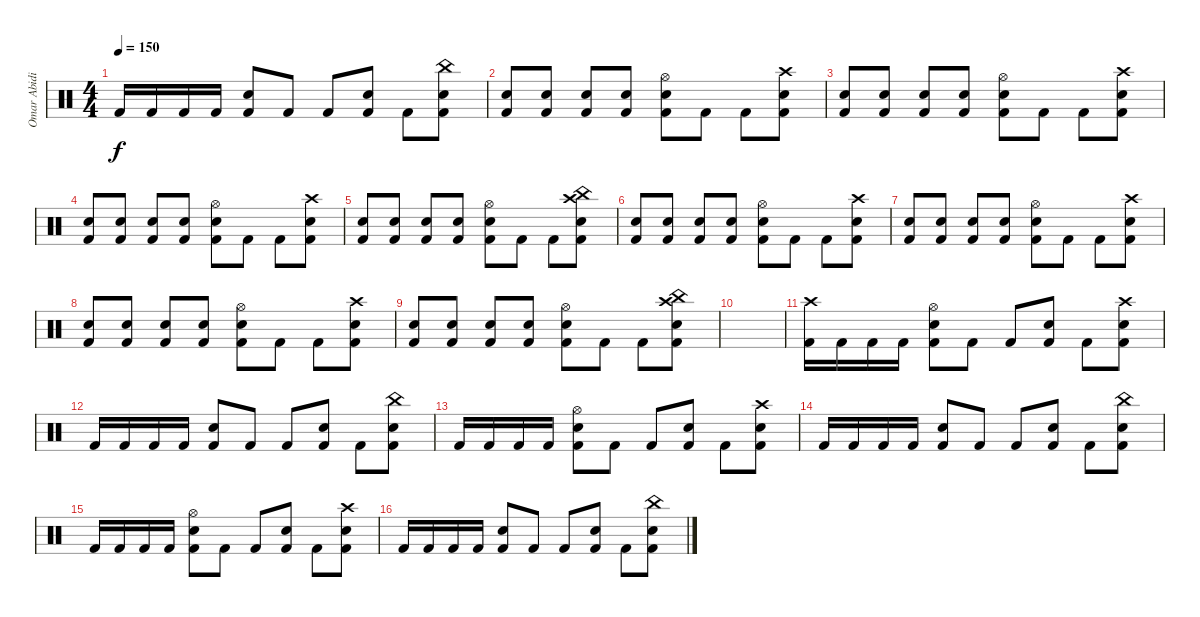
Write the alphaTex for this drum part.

\track ("Omar Abidi" "Omar Abidi") {instrument percussion}
\staff {score}
\articulation defaults
\ts (4 4)
\tempo 150
\clef neutral
\ks c "Kick (hit) 2".16{dy f} "Kick (hit) 2".16 "Kick (hit) 2".16 "Kick (hit) 2".16
("Snare (hit) 2" "Kick (hit) 2").8 "Kick (hit) 2".8 "Kick (hit) 2".8 ("Snare (hit) 2" "Kick (hit) 2").8 "Kick (hit) 2".8 ("China (hit)" "Snare (hit) 2" "Kick (hit) 2").8 |
("Snare (hit) 2" "Kick (hit) 2").8 ("Snare (hit) 2" "Kick (hit) 2").8 ("Snare (hit) 2" "Kick (hit) 2").8 ("Snare (hit) 2" "Kick (hit) 2").8 ("Hi-Hat (open)" "Snare (hit) 2" "Kick (hit) 2").8 "Kick (hit) 2".8 "Kick (hit) 2".8 ("Crash high (hit)" "Snare (hit) 2" "Kick (hit) 2").8 |
("Snare (hit) 2" "Kick (hit) 2").8 ("Snare (hit) 2" "Kick (hit) 2").8 ("Snare (hit) 2" "Kick (hit) 2").8 ("Snare (hit) 2" "Kick (hit) 2").8 ("Hi-Hat (open)" "Snare (hit) 2" "Kick (hit) 2").8 "Kick (hit) 2".8 "Kick (hit) 2".8 ("Crash high (hit)" "Snare (hit) 2" "Kick (hit) 2").8 |
("Snare (hit) 2" "Kick (hit) 2").8 ("Snare (hit) 2" "Kick (hit) 2").8 ("Snare (hit) 2" "Kick (hit) 2").8 ("Snare (hit) 2" "Kick (hit) 2").8 ("Hi-Hat (open)" "Snare (hit) 2" "Kick (hit) 2").8 "Kick (hit) 2".8 "Kick (hit) 2".8 ("Crash high (hit)" "Snare (hit) 2" "Kick (hit) 2").8 |
("Snare (hit) 2" "Kick (hit) 2").8 ("Snare (hit) 2" "Kick (hit) 2").8 ("Snare (hit) 2" "Kick (hit) 2").8 ("Snare (hit) 2" "Kick (hit) 2").8 ("Hi-Hat (open)" "Snare (hit) 2" "Kick (hit) 2").8 "Kick (hit) 2".8 "Kick (hit) 2".8 ("China (hit)" "Crash high (hit)" "Snare (hit) 2" "Kick (hit) 2").8 |
("Snare (hit) 2" "Kick (hit) 2").8 ("Snare (hit) 2" "Kick (hit) 2").8 ("Snare (hit) 2" "Kick (hit) 2").8 ("Snare (hit) 2" "Kick (hit) 2").8 ("Hi-Hat (open)" "Snare (hit) 2" "Kick (hit) 2").8 "Kick (hit) 2".8 "Kick (hit) 2".8 ("Crash high (hit)" "Snare (hit) 2" "Kick (hit) 2").8 |
("Snare (hit) 2" "Kick (hit) 2").8 ("Snare (hit) 2" "Kick (hit) 2").8 ("Snare (hit) 2" "Kick (hit) 2").8 ("Snare (hit) 2" "Kick (hit) 2").8 ("Hi-Hat (open)" "Snare (hit) 2" "Kick (hit) 2").8 "Kick (hit) 2".8 "Kick (hit) 2".8 ("Crash high (hit)" "Snare (hit) 2" "Kick (hit) 2").8 |
("Snare (hit) 2" "Kick (hit) 2").8 ("Snare (hit) 2" "Kick (hit) 2").8 ("Snare (hit) 2" "Kick (hit) 2").8 ("Snare (hit) 2" "Kick (hit) 2").8 ("Hi-Hat (open)" "Snare (hit) 2" "Kick (hit) 2").8 "Kick (hit) 2".8 "Kick (hit) 2".8 ("Crash high (hit)" "Snare (hit) 2" "Kick (hit) 2").8 |
("Snare (hit) 2" "Kick (hit) 2").8 ("Snare (hit) 2" "Kick (hit) 2").8 ("Snare (hit) 2" "Kick (hit) 2").8 ("Snare (hit) 2" "Kick (hit) 2").8 ("Hi-Hat (open)" "Snare (hit) 2" "Kick (hit) 2").8 "Kick (hit) 2".8 "Kick (hit) 2".8 ("China (hit)" "Crash high (hit)" "Snare (hit) 2" "Kick (hit) 2").8 |
|
("Crash high (hit)" "Kick (hit) 2").16 "Kick (hit) 2".16 "Kick (hit) 2".16 "Kick (hit) 2".16 ("Hi-Hat (open)" "Snare (hit) 2" "Kick (hit) 2").8 "Kick (hit) 2".8 "Kick (hit) 2".8 ("Snare (hit) 2" "Kick (hit) 2").8 "Kick (hit) 2".8 ("Crash high (hit)" "Snare (hit) 2" "Kick (hit) 2").8 |
"Kick (hit) 2".16 "Kick (hit) 2".16 "Kick (hit) 2".16 "Kick (hit) 2".16 ("Snare (hit) 2" "Kick (hit) 2").8 "Kick (hit) 2".8 "Kick (hit) 2".8 ("Snare (hit) 2" "Kick (hit) 2").8 "Kick (hit) 2".8 ("China (hit)" "Snare (hit) 2" "Kick (hit) 2").8 |
"Kick (hit) 2".16 "Kick (hit) 2".16 "Kick (hit) 2".16 "Kick (hit) 2".16 ("Hi-Hat (open)" "Snare (hit) 2" "Kick (hit) 2").8 "Kick (hit) 2".8 "Kick (hit) 2".8 ("Snare (hit) 2" "Kick (hit) 2").8 "Kick (hit) 2".8 ("Crash high (hit)" "Snare (hit) 2" "Kick (hit) 2").8 |
"Kick (hit) 2".16 "Kick (hit) 2".16 "Kick (hit) 2".16 "Kick (hit) 2".16 ("Snare (hit) 2" "Kick (hit) 2").8 "Kick (hit) 2".8 "Kick (hit) 2".8 ("Snare (hit) 2" "Kick (hit) 2").8 "Kick (hit) 2".8 ("China (hit)" "Snare (hit) 2" "Kick (hit) 2").8 |
"Kick (hit) 2".16 "Kick (hit) 2".16 "Kick (hit) 2".16 "Kick (hit) 2".16 ("Hi-Hat (open)" "Snare (hit) 2" "Kick (hit) 2").8 "Kick (hit) 2".8 "Kick (hit) 2".8 ("Snare (hit) 2" "Kick (hit) 2").8 "Kick (hit) 2".8 ("Crash high (hit)" "Snare (hit) 2" "Kick (hit) 2").8 |
"Kick (hit) 2".16 "Kick (hit) 2".16 "Kick (hit) 2".16 "Kick (hit) 2".16 ("Snare (hit) 2" "Kick (hit) 2").8 "Kick (hit) 2".8 "Kick (hit) 2".8 ("Snare (hit) 2" "Kick (hit) 2").8 "Kick (hit) 2".8 ("China (hit)" "Snare (hit) 2" "Kick (hit) 2").8
